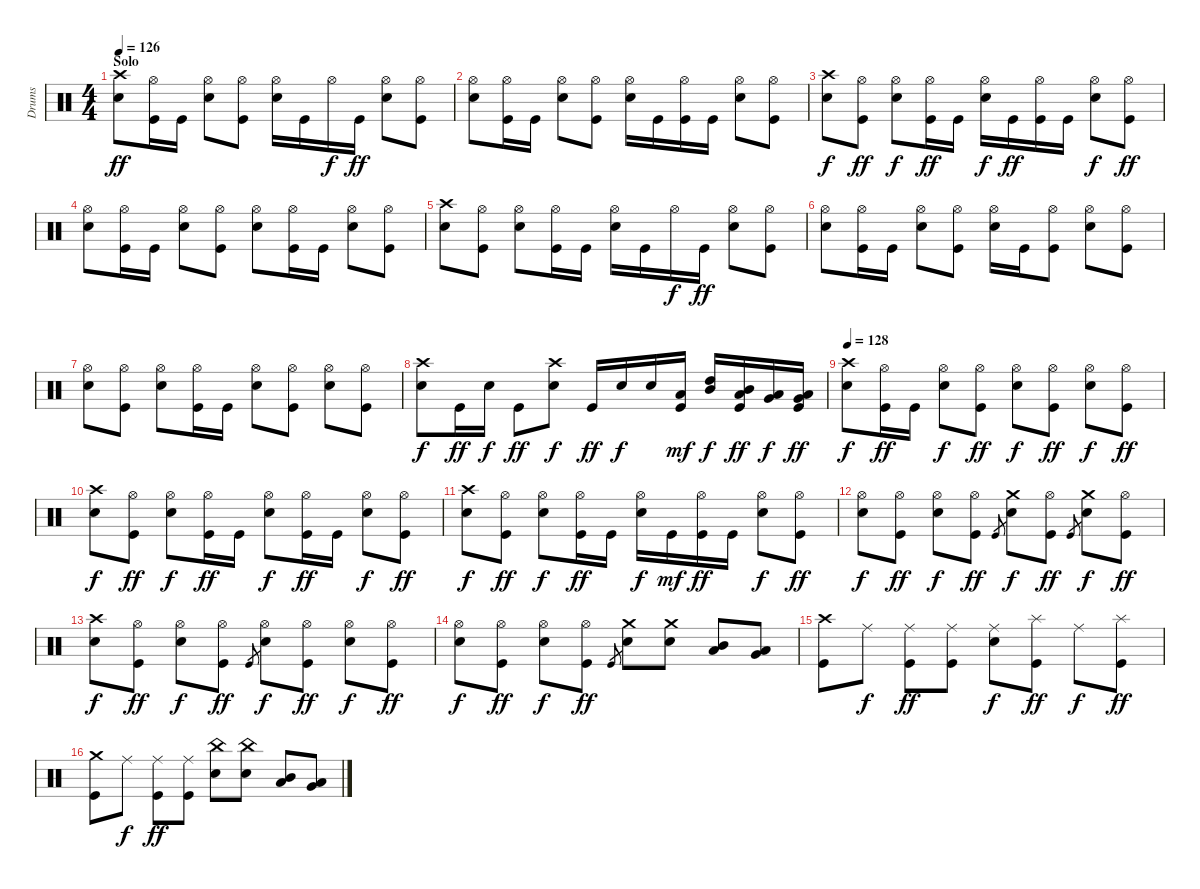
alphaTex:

\track ("Drums" "Drums") {instrument percussion}
\staff {score}
\articulation defaults
\ts (4 4)
\section ("" "Solo")
\tempo 126
\clef neutral
\ks c
("Crash high (hit)" "Snare (hit) 2").8{dy ff} ("Hi-Hat (open)" "Kick (hit)").16 "Kick (hit)".16 ("Hi-Hat (open)" "Snare (hit) 2").8 ("Hi-Hat (open)" "Kick (hit)").8 ("Hi-Hat (open)" "Snare (hit) 2").16 "Kick (hit)".16 "Hi-Hat (open)".16{dy f} "Kick (hit)".16{dy ff} ("Hi-Hat (open)" "Snare (hit) 2").8 ("Hi-Hat (open)" "Kick (hit)").8 |
("Hi-Hat (open)" "Snare (hit) 2").8 ("Hi-Hat (open)" "Kick (hit)").16 "Kick (hit)".16 ("Hi-Hat (open)" "Snare (hit) 2").8 ("Hi-Hat (open)" "Kick (hit)").8 ("Hi-Hat (open)" "Snare (hit) 2").16 "Kick (hit)".16 ("Hi-Hat (open)" "Kick (hit)").16 "Kick (hit)".16 ("Hi-Hat (open)" "Snare (hit) 2").8 ("Hi-Hat (open)" "Kick (hit)").8 |
("Crash high (hit)" "Snare (hit) 2").8{dy f} ("Hi-Hat (open)" "Kick (hit)").8{dy ff} ("Hi-Hat (open)" "Snare (hit) 2").8{dy f} ("Hi-Hat (open)" "Kick (hit)").16{dy ff} "Kick (hit)".16 ("Hi-Hat (open)" "Snare (hit) 2").16{dy f} "Kick (hit)".16{dy ff} ("Hi-Hat (open)" "Kick (hit)").16 "Kick (hit)".16 ("Hi-Hat (open)" "Snare (hit) 2").8{dy f} ("Hi-Hat (open)" "Kick (hit)").8{dy ff} |
("Hi-Hat (open)" "Snare (hit) 2").8 ("Hi-Hat (open)" "Kick (hit)").16 "Kick (hit)".16 ("Hi-Hat (open)" "Snare (hit) 2").8 ("Hi-Hat (open)" "Kick (hit)").8 ("Hi-Hat (open)" "Snare (hit) 2").8 ("Hi-Hat (open)" "Kick (hit)").16 "Kick (hit)".16 ("Hi-Hat (open)" "Snare (hit) 2").8 ("Hi-Hat (open)" "Kick (hit)").8 |
("Crash high (hit)" "Snare (hit) 2").8 ("Hi-Hat (open)" "Kick (hit)").8 ("Hi-Hat (open)" "Snare (hit) 2").8 ("Hi-Hat (open)" "Kick (hit)").16 "Kick (hit)".16 ("Hi-Hat (open)" "Snare (hit) 2").16 "Kick (hit)".16 "Hi-Hat (open)".16{dy f} "Kick (hit)".16{dy ff} ("Hi-Hat (open)" "Snare (hit) 2").8 ("Hi-Hat (open)" "Kick (hit)").8 |
("Hi-Hat (open)" "Snare (hit) 2").8 ("Hi-Hat (open)" "Kick (hit)").16 "Kick (hit)".16 ("Hi-Hat (open)" "Snare (hit) 2").8 ("Hi-Hat (open)" "Kick (hit)").8 ("Hi-Hat (open)" "Snare (hit) 2").16 "Kick (hit)".16 ("Hi-Hat (open)" "Kick (hit)").8 ("Hi-Hat (open)" "Snare (hit) 2").8 ("Hi-Hat (open)" "Kick (hit)").8 |
("Hi-Hat (open)" "Snare (hit) 2").8 ("Hi-Hat (open)" "Kick (hit)").8 ("Hi-Hat (open)" "Snare (hit) 2").8 ("Hi-Hat (open)" "Kick (hit)").16 "Kick (hit)".16 ("Hi-Hat (open)" "Snare (hit) 2").8 ("Hi-Hat (open)" "Kick (hit)").8 ("Hi-Hat (open)" "Snare (hit) 2").8 ("Hi-Hat (open)" "Kick (hit)").8 |
("Crash high (hit)" "Snare (hit) 2").8{dy f} "Kick (hit)".16{dy ff} "Snare (hit) 2".16{dy f} "Kick (hit)".8{dy ff} ("Crash high (hit)" "Snare (hit) 2").8{dy f} "Kick (hit)".16{dy ff} "Snare (hit) 2".16{dy f} "Snare (hit) 2".16 ("Low Floor Tom (hit)" "Kick (hit)").16{dy mf} ("High Tom (hit)" "Mid Tom (hit)").16{dy f} ("Mid Tom (hit)" "Low Tom (hit)" "Kick (hit)").16{dy ff} ("Low Tom (hit)" "Very Low Tom (hit)").16{dy f} ("Very Low Tom (hit)" "Low Floor Tom (hit)" "Kick (hit)").16{dy ff} |
\tempo 128
("Crash high (hit)" "Snare (hit) 2").8{dy f} ("Hi-Hat (open)" "Kick (hit)").16{dy ff} "Kick (hit)".16 ("Hi-Hat (open)" "Snare (hit) 2").8{dy f} ("Hi-Hat (open)" "Kick (hit)").8{dy ff} ("Hi-Hat (open)" "Snare (hit) 2").8{dy f} ("Hi-Hat (open)" "Kick (hit)").8{dy ff} ("Hi-Hat (open)" "Snare (hit) 2").8{dy f} ("Hi-Hat (open)" "Kick (hit)").8{dy ff} |
("Crash high (hit)" "Snare (hit) 2").8{dy f} ("Hi-Hat (open)" "Kick (hit)").8{dy ff} ("Hi-Hat (open)" "Snare (hit) 2").8{dy f} ("Hi-Hat (open)" "Kick (hit)").16{dy ff} "Kick (hit)".16 ("Hi-Hat (open)" "Snare (hit) 2").8{dy f} ("Hi-Hat (open)" "Kick (hit)").16{dy ff} "Kick (hit)".16 ("Hi-Hat (open)" "Snare (hit) 2").8{dy f} ("Hi-Hat (open)" "Kick (hit)").8{dy ff} |
("Crash high (hit)" "Snare (hit) 2").8{dy f} ("Hi-Hat (open)" "Kick (hit)").8{dy ff} ("Hi-Hat (open)" "Snare (hit) 2").8{dy f} ("Hi-Hat (open)" "Kick (hit)").16{dy ff} "Kick (hit)".16 ("Hi-Hat (open)" "Snare (hit) 2").16{dy f} "Kick (hit)".16{dy mf} ("Hi-Hat (open)" "Kick (hit)").16{dy ff} "Kick (hit)".16 ("Hi-Hat (open)" "Snare (hit) 2").8{dy f} ("Hi-Hat (open)" "Kick (hit)").8{dy ff} |
("Hi-Hat (open)" "Snare (hit) 2").8{dy f} ("Hi-Hat (open)" "Kick (hit)").8{dy ff} ("Hi-Hat (open)" "Snare (hit) 2").8{dy f} ("Hi-Hat (open)" "Kick (hit)").8{dy ff} "Kick (hit)".8{gr} ("Crash medium (hit)" "Snare (hit) 2").8{dy f} ("Hi-Hat (open)" "Kick (hit)").8{dy ff} "Kick (hit)".8{gr} ("Crash medium (hit)" "Snare (hit) 2").8{dy f} ("Hi-Hat (open)" "Kick (hit)").8{dy ff} |
("Crash high (hit)" "Snare (hit) 2").8{dy f} ("Hi-Hat (open)" "Kick (hit)").8{dy ff} ("Hi-Hat (open)" "Snare (hit) 2").8{dy f} ("Hi-Hat (open)" "Kick (hit)").8{dy ff} "Kick (hit)".8{gr} ("Hi-Hat (open)" "Snare (hit) 2").8{dy f} ("Hi-Hat (open)" "Kick (hit)").8{dy ff} ("Hi-Hat (open)" "Snare (hit) 2").8{dy f} ("Hi-Hat (open)" "Kick (hit)").8{dy ff} |
("Hi-Hat (open)" "Snare (hit) 2").8{dy f} ("Hi-Hat (open)" "Kick (hit)").8{dy ff} ("Hi-Hat (open)" "Snare (hit) 2").8{dy f} ("Hi-Hat (open)" "Kick (hit)").8{dy ff} "Kick (hit)".8{gr} ("Crash medium (hit)" "Snare (hit) 2").8 ("Crash medium (hit)" "Snare (hit) 2").8 ("Mid Tom (hit)" "Low Tom (hit)").8 ("Low Tom (hit)" "Very Low Tom (hit)").8 |
("Crash high (hit)" "Kick (hit)").8 "Ride (middle)".8{dy f} ("Ride (middle)" "Kick (hit)").8{dy ff} ("Ride (middle)" "Kick (hit)").8 ("Ride (middle)" "Snare (hit) 2").8{dy f} ("Splash (hit)" "Kick (hit)").8{dy ff} "Ride (middle)".8{dy f} ("Splash (hit)" "Kick (hit)").8{dy ff} |
("Crash medium (hit)" "Kick (hit)").8 "Ride (middle)".8{dy f} ("Ride (middle)" "Kick (hit)").8{dy ff} ("Ride (middle)" "Kick (hit)").8 ("China (hit)" "Snare (hit) 2").8 ("China (hit)" "Snare (hit) 2").8 ("Mid Tom (hit)" "Low Tom (hit)").8 ("Low Tom (hit)" "Very Low Tom (hit)").8
